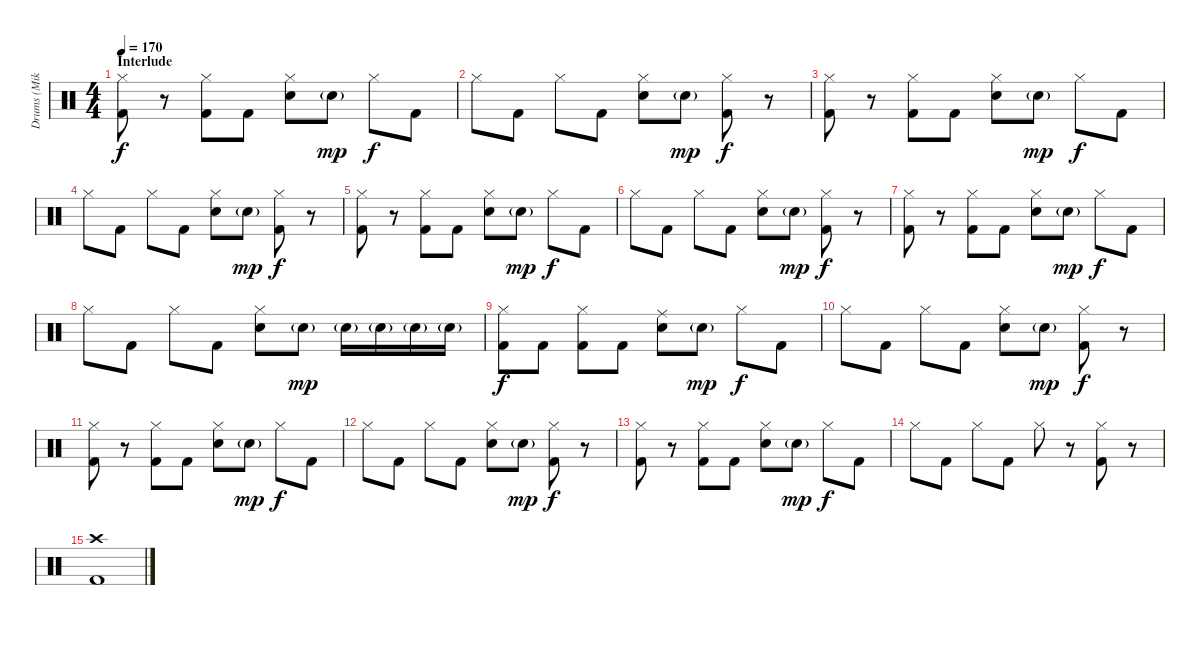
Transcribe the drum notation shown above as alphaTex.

\track ("Drums (Mike C)" "Drums (Mik") {instrument percussion}
\staff {score}
\articulation defaults
\ts (4 4)
\section ("" "Interlude")
\tempo 170
\clef neutral
\ks c
("Hi-Hat (closed)" "Kick (hit) 2").8{dy f} r.8 ("Hi-Hat (closed)" "Kick (hit) 2").8 "Kick (hit) 2".8 ("Hi-Hat (closed)" "Snare (hit) 2").8 "Snare (hit) 2"{g}.8{dy mp} "Hi-Hat (closed)".8{dy f} "Kick (hit) 2".8 |
"Hi-Hat (closed)".8 "Kick (hit) 2".8 "Hi-Hat (closed)".8 "Kick (hit) 2".8 ("Hi-Hat (closed)" "Snare (hit) 2").8 "Snare (hit) 2"{g}.8{dy mp} ("Hi-Hat (closed)" "Kick (hit) 2").8{dy f} r.8 |
("Hi-Hat (closed)" "Kick (hit) 2").8 r.8 ("Hi-Hat (closed)" "Kick (hit) 2").8 "Kick (hit) 2".8 ("Hi-Hat (closed)" "Snare (hit) 2").8 "Snare (hit) 2"{g}.8{dy mp} "Hi-Hat (closed)".8{dy f} "Kick (hit) 2".8 |
"Hi-Hat (closed)".8 "Kick (hit) 2".8 "Hi-Hat (closed)".8 "Kick (hit) 2".8 ("Hi-Hat (closed)" "Snare (hit) 2").8 "Snare (hit) 2"{g}.8{dy mp} ("Hi-Hat (closed)" "Kick (hit) 2").8{dy f} r.8 |
("Hi-Hat (closed)" "Kick (hit) 2").8 r.8 ("Hi-Hat (closed)" "Kick (hit) 2").8 "Kick (hit) 2".8 ("Hi-Hat (closed)" "Snare (hit) 2").8 "Snare (hit) 2"{g}.8{dy mp} "Hi-Hat (closed)".8{dy f} "Kick (hit) 2".8 |
"Hi-Hat (closed)".8 "Kick (hit) 2".8 "Hi-Hat (closed)".8 "Kick (hit) 2".8 ("Hi-Hat (closed)" "Snare (hit) 2").8 "Snare (hit) 2"{g}.8{dy mp} ("Hi-Hat (closed)" "Kick (hit) 2").8{dy f} r.8 |
("Hi-Hat (closed)" "Kick (hit) 2").8 r.8 ("Hi-Hat (closed)" "Kick (hit) 2").8 "Kick (hit) 2".8 ("Hi-Hat (closed)" "Snare (hit) 2").8 "Snare (hit) 2"{g}.8{dy mp} "Hi-Hat (closed)".8{dy f} "Kick (hit) 2".8 |
"Hi-Hat (closed)".8 "Kick (hit) 2".8 "Hi-Hat (closed)".8 "Kick (hit) 2".8 ("Hi-Hat (closed)" "Snare (hit) 2").8 "Snare (hit) 2"{g}.8{dy mp} "Snare (hit) 2"{g}.16 "Snare (hit) 2"{g}.16 "Snare (hit) 2"{g}.16 "Snare (hit) 2"{g}.16 |
("Hi-Hat (closed)" "Kick (hit) 2").8{dy f} "Kick (hit) 2".8 ("Hi-Hat (closed)" "Kick (hit) 2").8 "Kick (hit) 2".8 ("Ride (middle)" "Snare (hit) 2").8 "Snare (hit) 2"{g}.8{dy mp} "Hi-Hat (closed)".8{dy f} "Kick (hit) 2".8 |
"Hi-Hat (closed)".8 "Kick (hit) 2".8 "Hi-Hat (closed)".8 "Kick (hit) 2".8 ("Hi-Hat (closed)" "Snare (hit) 2").8 "Snare (hit) 2"{g}.8{dy mp} ("Hi-Hat (closed)" "Kick (hit) 2").8{dy f} r.8 |
("Hi-Hat (closed)" "Kick (hit) 2").8 r.8 ("Hi-Hat (closed)" "Kick (hit) 2").8 "Kick (hit) 2".8 ("Hi-Hat (closed)" "Snare (hit) 2").8 "Snare (hit) 2"{g}.8{dy mp} "Hi-Hat (closed)".8{dy f} "Kick (hit) 2".8 |
"Hi-Hat (closed)".8 "Kick (hit) 2".8 "Hi-Hat (closed)".8 "Kick (hit) 2".8 ("Hi-Hat (closed)" "Snare (hit) 2").8 "Snare (hit) 2"{g}.8{dy mp} ("Hi-Hat (closed)" "Kick (hit) 2").8{dy f} r.8 |
("Hi-Hat (closed)" "Kick (hit) 2").8 r.8 ("Hi-Hat (closed)" "Kick (hit) 2").8 "Kick (hit) 2".8 ("Hi-Hat (closed)" "Snare (hit) 2").8 "Snare (hit) 2"{g}.8{dy mp} "Hi-Hat (closed)".8{dy f} "Kick (hit) 2".8 |
"Hi-Hat (closed)".8 "Kick (hit) 2".8 "Hi-Hat (closed)".8 "Kick (hit) 2".8 "Hi-Hat (closed)".8 r.8 ("Hi-Hat (closed)" "Kick (hit) 2").8 r.8 |
("Crash high (hit)" "Kick (hit) 2").1
